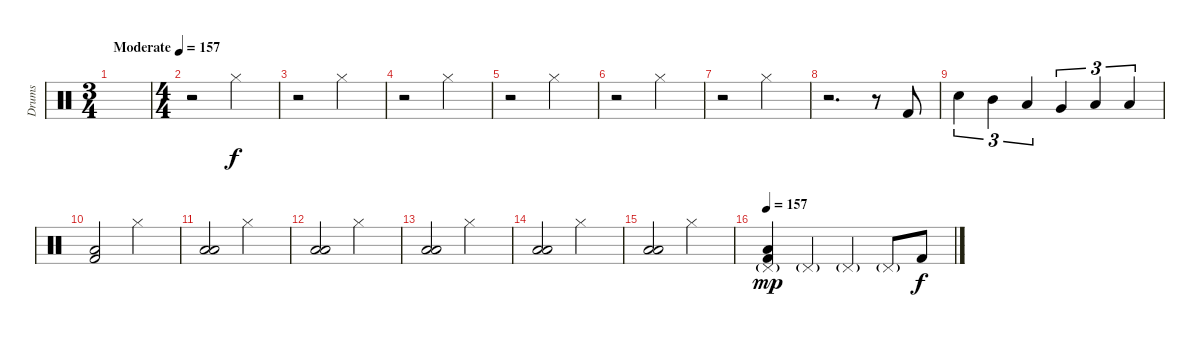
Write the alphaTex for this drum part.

\track ("Drums" "Drums") {instrument percussion}
\staff {score}
\articulation defaults
\ts (3 4)
\tempo (157 "Moderate")
\tempo 142
\tempo (157 "Moderate")
\clef neutral
\ks c
|
\ts (4 4)
r.2 "Hi-Hat (closed)".2 |
r.2 "Hi-Hat (closed)".2 |
r.2 "Hi-Hat (closed)".2 |
r.2 "Hi-Hat (closed)".2 |
r.2 "Hi-Hat (closed)".2 |
r.2 "Hi-Hat (closed)".2 |
r.2{d} r.8 "Kick (hit) 2".8 |
"Electric Snare (hit)".4{tu (3 2)} "Mid Tom (hit)".4{tu (3 2)} "Low Tom (hit)".4{tu (3 2)} "Very Low Tom (hit)".4{tu (3 2)} "Low Floor Tom (hit)".4{tu (3 2)} "Low Floor Tom (hit)".4{tu (3 2)} |
("Low Floor Tom (hit)" "Kick (hit) 2").2 "Hi-Hat (closed)".2 |
("Low Floor Tom (hit)" "Low Floor Tom (hit)").2 "Hi-Hat (closed)".2 |
("Low Floor Tom (hit)" "Low Floor Tom (hit)").2 "Hi-Hat (closed)".2 |
("Low Floor Tom (hit)" "Low Floor Tom (hit)").2 "Hi-Hat (closed)".2 |
("Low Floor Tom (hit)" "Low Floor Tom (hit)").2 "Hi-Hat (closed)".2 |
("Low Floor Tom (hit)" "Low Floor Tom (hit)").2 "Hi-Hat (closed)".2 |
\tempo 157
("Pedal Hi-Hat (hit)"{g} "Low Floor Tom (hit)" "Kick (hit) 2").4{dy mp} "Pedal Hi-Hat (hit)"{g}.4 "Pedal Hi-Hat (hit)"{g}.4 "Pedal Hi-Hat (hit)"{g}.8 "Kick (hit) 2".8{dy f}
